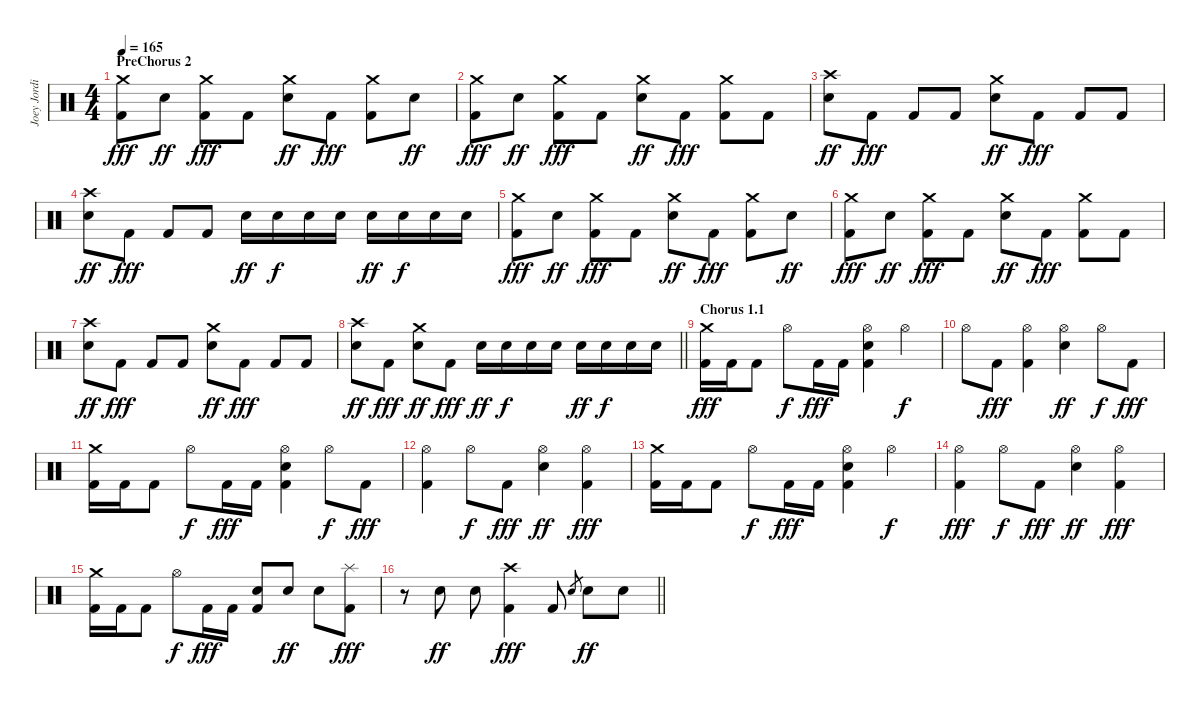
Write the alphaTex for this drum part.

\track ("Joey Jordison" "Joey Jordi") {instrument percussion}
\staff {score}
\articulation defaults
\ts (4 4)
\section ("" "PreChorus 2")
\tempo 165
\clef neutral
\ks c
("Crash medium (hit)" "Kick (hit) 2").8{dy fff} "Electric Snare (hit)".8{dy ff} ("Crash medium (hit)" "Kick (hit) 2").8{dy fff} "Kick (hit) 2".8 ("Crash medium (hit)" "Electric Snare (hit)").8{dy ff} "Kick (hit) 2".8{dy fff} ("Crash medium (hit)" "Kick (hit) 2").8 "Electric Snare (hit)".8{dy ff} |
("Crash medium (hit)" "Kick (hit) 2").8{dy fff} "Electric Snare (hit)".8{dy ff} ("Crash medium (hit)" "Kick (hit) 2").8{dy fff} "Kick (hit) 2".8 ("Crash medium (hit)" "Electric Snare (hit)").8{dy ff} "Kick (hit) 2".8{dy fff} ("Crash medium (hit)" "Kick (hit) 2").8 "Kick (hit) 2".8 |
("Crash high (hit)" "Electric Snare (hit)").8{dy ff} "Kick (hit) 2".8{dy fff} "Kick (hit) 2".8 "Kick (hit) 2".8 ("Crash medium (hit)" "Electric Snare (hit)").8{dy ff} "Kick (hit) 2".8{dy fff} "Kick (hit) 2".8 "Kick (hit) 2".8 |
("Crash high (hit)" "Electric Snare (hit)").8{dy ff} "Kick (hit) 2".8{dy fff} "Kick (hit) 2".8 "Kick (hit) 2".8 "Electric Snare (hit)".16{dy ff} "Electric Snare (hit)".16{dy f} "Electric Snare (hit)".16 "Electric Snare (hit)".16 "Electric Snare (hit)".16{dy ff} "Electric Snare (hit)".16{dy f} "Electric Snare (hit)".16 "Electric Snare (hit)".16 |
("Crash medium (hit)" "Kick (hit) 2").8{dy fff} "Electric Snare (hit)".8{dy ff} ("Crash medium (hit)" "Kick (hit) 2").8{dy fff} "Kick (hit) 2".8 ("Crash medium (hit)" "Electric Snare (hit)").8{dy ff} "Kick (hit) 2".8{dy fff} ("Crash medium (hit)" "Kick (hit) 2").8 "Electric Snare (hit)".8{dy ff} |
("Crash medium (hit)" "Kick (hit) 2").8{dy fff} "Electric Snare (hit)".8{dy ff} ("Crash medium (hit)" "Kick (hit) 2").8{dy fff} "Kick (hit) 2".8 ("Crash medium (hit)" "Electric Snare (hit)").8{dy ff} "Kick (hit) 2".8{dy fff} ("Crash medium (hit)" "Kick (hit) 2").8 "Kick (hit) 2".8 |
("Crash high (hit)" "Electric Snare (hit)").8{dy ff} "Kick (hit) 2".8{dy fff} "Kick (hit) 2".8 "Kick (hit) 2".8 ("Crash medium (hit)" "Electric Snare (hit)").8{dy ff} "Kick (hit) 2".8{dy fff} "Kick (hit) 2".8 "Kick (hit) 2".8 |
\barLineRight lightlight
("Crash high (hit)" "Electric Snare (hit)").8{dy ff} "Kick (hit) 2".8{dy fff} ("Crash medium (hit)" "Electric Snare (hit)").8{dy ff} "Kick (hit) 2".8{dy fff} "Electric Snare (hit)".16{dy ff} "Electric Snare (hit)".16{dy f} "Electric Snare (hit)".16 "Electric Snare (hit)".16 "Electric Snare (hit)".16{dy ff} "Electric Snare (hit)".16{dy f} "Electric Snare (hit)".16 "Electric Snare (hit)".16 |
\section ("" "Chorus 1.1")
("Crash medium (hit)" "Kick (hit) 2").16{dy fff} "Kick (hit) 2".16 "Kick (hit) 2".8 "Hi-Hat (open)".8{dy f} "Kick (hit) 2".16{dy fff} "Kick (hit) 2".16 ("Hi-Hat (open)" "Electric Snare (hit)" "Kick (hit) 2").4 "Hi-Hat (open)".4{dy f} |
"Hi-Hat (open)".8 "Kick (hit) 2".8{dy fff} ("Hi-Hat (open)" "Kick (hit) 2").4 ("Hi-Hat (open)" "Electric Snare (hit)").4{dy ff} "Hi-Hat (open)".8{dy f} "Kick (hit) 2".8{dy fff} |
("Crash medium (hit)" "Kick (hit) 2").16 "Kick (hit) 2".16 "Kick (hit) 2".8 "Hi-Hat (open)".8{dy f} "Kick (hit) 2".16{dy fff} "Kick (hit) 2".16 ("Hi-Hat (open)" "Electric Snare (hit)" "Kick (hit) 2").4 "Hi-Hat (open)".8{dy f} "Kick (hit) 2".8{dy fff} |
("Hi-Hat (open)" "Kick (hit) 2").4 "Hi-Hat (open)".8{dy f} "Kick (hit) 2".8{dy fff} ("Hi-Hat (open)" "Electric Snare (hit)").4{dy ff} ("Hi-Hat (open)" "Kick (hit) 2").4{dy fff} |
("Crash medium (hit)" "Kick (hit) 2").16 "Kick (hit) 2".16 "Kick (hit) 2".8 "Hi-Hat (open)".8{dy f} "Kick (hit) 2".16{dy fff} "Kick (hit) 2".16 ("Hi-Hat (open)" "Electric Snare (hit)" "Kick (hit) 2").4 "Hi-Hat (open)".4{dy f} |
("Hi-Hat (open)" "Kick (hit) 2").4{dy fff} "Hi-Hat (open)".8{dy f} "Kick (hit) 2".8{dy fff} ("Hi-Hat (open)" "Electric Snare (hit)").4{dy ff} ("Hi-Hat (open)" "Kick (hit) 2").4{dy fff} |
("Crash medium (hit)" "Kick (hit) 2").16 "Kick (hit) 2".16 "Kick (hit) 2".8 "Hi-Hat (open)".8{dy f} "Kick (hit) 2".16{dy fff} "Kick (hit) 2".16 ("Electric Snare (hit)" "Kick (hit) 2").8 "Electric Snare (hit)".8{dy ff} "Electric Snare (hit)".8 ("Splash (hit)" "Kick (hit) 2").8{dy fff} |
\barLineRight lightlight
r.8 "Electric Snare (hit)".8{dy ff} "Electric Snare (hit)".8 ("Crash high (hit)" "Kick (hit) 2").4{dy fff} "Kick (hit) 2".8 "Electric Snare (hit)".8{gr} "Electric Snare (hit)".8{dy ff} "Electric Snare (hit)".8
